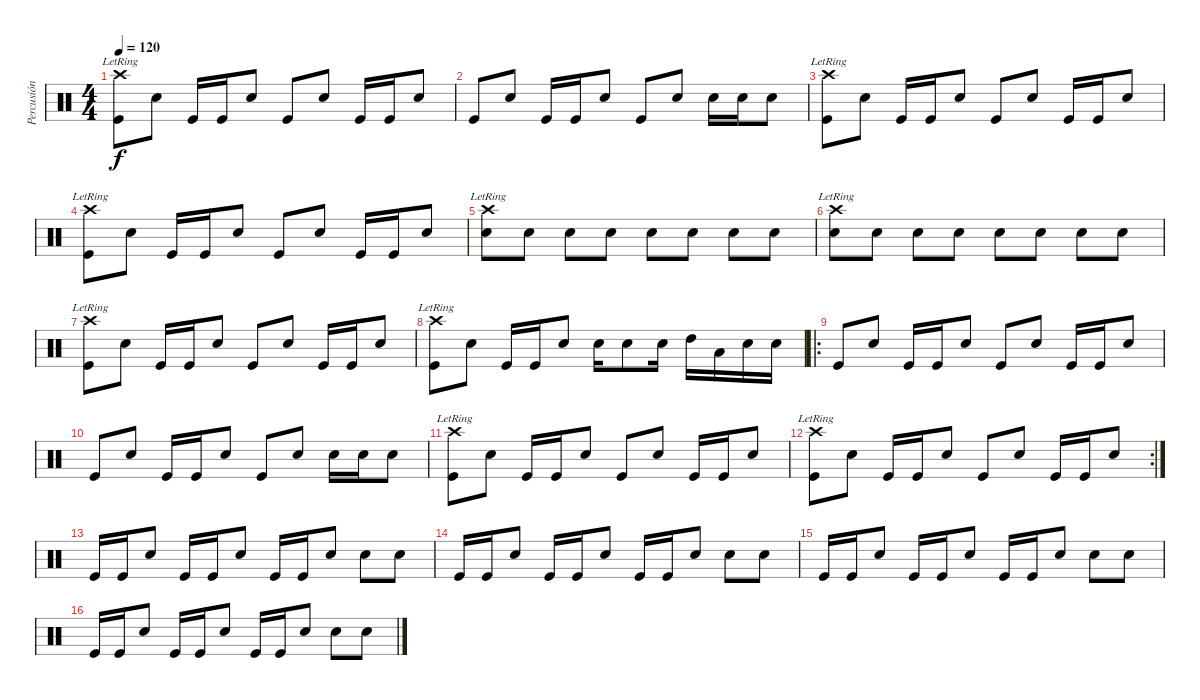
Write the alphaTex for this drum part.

\track ("Percusión" "Percusión") {instrument percussion}
\staff {score}
\articulation defaults
\ts (4 4)
\tempo 120
\clef neutral
\ks c
("Kick (hit)" "Crash high (hit)"{lr}).8{dy f} "Electric Snare (hit)".8 "Kick (hit)".16 "Kick (hit)".16 "Electric Snare (hit)".8 "Kick (hit)".8 "Electric Snare (hit)".8 "Kick (hit)".16 "Kick (hit)".16 "Electric Snare (hit)".8 |
"Kick (hit)".8 "Electric Snare (hit)".8 "Kick (hit)".16 "Kick (hit)".16 "Electric Snare (hit)".8 "Kick (hit)".8 "Electric Snare (hit)".8 "Electric Snare (hit)".16 "Electric Snare (hit)".16 "Electric Snare (hit)".8 |
("Kick (hit)" "Crash high (hit)"{lr}).8 "Electric Snare (hit)".8 "Kick (hit)".16 "Kick (hit)".16 "Electric Snare (hit)".8 "Kick (hit)".8 "Electric Snare (hit)".8 "Kick (hit)".16 "Kick (hit)".16 "Electric Snare (hit)".8 |
("Kick (hit)" "Crash high (hit)"{lr}).8 "Electric Snare (hit)".8 "Kick (hit)".16 "Kick (hit)".16 "Electric Snare (hit)".8 "Kick (hit)".8 "Electric Snare (hit)".8 "Kick (hit)".16 "Kick (hit)".16 "Electric Snare (hit)".8 |
("Electric Snare (hit)" "Crash high (hit)"{lr}).8 "Electric Snare (hit)".8 "Electric Snare (hit)".8 "Electric Snare (hit)".8 "Electric Snare (hit)".8 "Electric Snare (hit)".8 "Electric Snare (hit)".8 "Electric Snare (hit)".8 |
("Electric Snare (hit)" "Crash high (hit)"{lr}).8 "Electric Snare (hit)".8 "Electric Snare (hit)".8 "Electric Snare (hit)".8 "Electric Snare (hit)".8 "Electric Snare (hit)".8 "Electric Snare (hit)".8 "Electric Snare (hit)".8 |
("Kick (hit)" "Crash high (hit)"{lr}).8 "Electric Snare (hit)".8 "Kick (hit)".16 "Kick (hit)".16 "Electric Snare (hit)".8 "Kick (hit)".8 "Electric Snare (hit)".8 "Kick (hit)".16 "Kick (hit)".16 "Electric Snare (hit)".8 |
("Kick (hit)" "Crash high (hit)"{lr}).8 "Electric Snare (hit)".8 "Kick (hit)".16 "Kick (hit)".16 "Electric Snare (hit)".8 "Electric Snare (hit)".16 "Electric Snare (hit)".8 "Electric Snare (hit)".16 "High Tom (hit)".16 "Low Tom (hit)".16 "Electric Snare (hit)".16 "Electric Snare (hit)".16 |
\ro "Kick (hit)".8 "Electric Snare (hit)".8 "Kick (hit)".16 "Kick (hit)".16 "Electric Snare (hit)".8 "Kick (hit)".8 "Electric Snare (hit)".8 "Kick (hit)".16 "Kick (hit)".16 "Electric Snare (hit)".8
|
"Kick (hit)".8 "Electric Snare (hit)".8 "Kick (hit)".16 "Kick (hit)".16 "Electric Snare (hit)".8 "Kick (hit)".8 "Electric Snare (hit)".8 "Electric Snare (hit)".16 "Electric Snare (hit)".16 "Electric Snare (hit)".8 |
("Kick (hit)" "Crash high (hit)"{lr}).8 "Electric Snare (hit)".8 "Kick (hit)".16 "Kick (hit)".16 "Electric Snare (hit)".8 "Kick (hit)".8 "Electric Snare (hit)".8 "Kick (hit)".16 "Kick (hit)".16 "Electric Snare (hit)".8 |
\rc 2
("Kick (hit)" "Crash high (hit)"{lr}).8 "Electric Snare (hit)".8 "Kick (hit)".16 "Kick (hit)".16 "Electric Snare (hit)".8 "Kick (hit)".8 "Electric Snare (hit)".8 "Kick (hit)".16 "Kick (hit)".16 "Electric Snare (hit)".8 |
"Kick (hit)".16 "Kick (hit)".16 "Electric Snare (hit)".8 "Kick (hit)".16 "Kick (hit)".16 "Electric Snare (hit)".8 "Kick (hit)".16 "Kick (hit)".16 "Electric Snare (hit)".8 "Electric Snare (hit)".8 "Electric Snare (hit)".8 |
"Kick (hit)".16 "Kick (hit)".16 "Electric Snare (hit)".8 "Kick (hit)".16 "Kick (hit)".16 "Electric Snare (hit)".8 "Kick (hit)".16 "Kick (hit)".16 "Electric Snare (hit)".8 "Electric Snare (hit)".8 "Electric Snare (hit)".8 |
"Kick (hit)".16 "Kick (hit)".16 "Electric Snare (hit)".8 "Kick (hit)".16 "Kick (hit)".16 "Electric Snare (hit)".8 "Kick (hit)".16 "Kick (hit)".16 "Electric Snare (hit)".8 "Electric Snare (hit)".8 "Electric Snare (hit)".8 |
"Kick (hit)".16 "Kick (hit)".16 "Electric Snare (hit)".8 "Kick (hit)".16 "Kick (hit)".16 "Electric Snare (hit)".8 "Kick (hit)".16 "Kick (hit)".16 "Electric Snare (hit)".8 "Electric Snare (hit)".8 "Electric Snare (hit)".8
